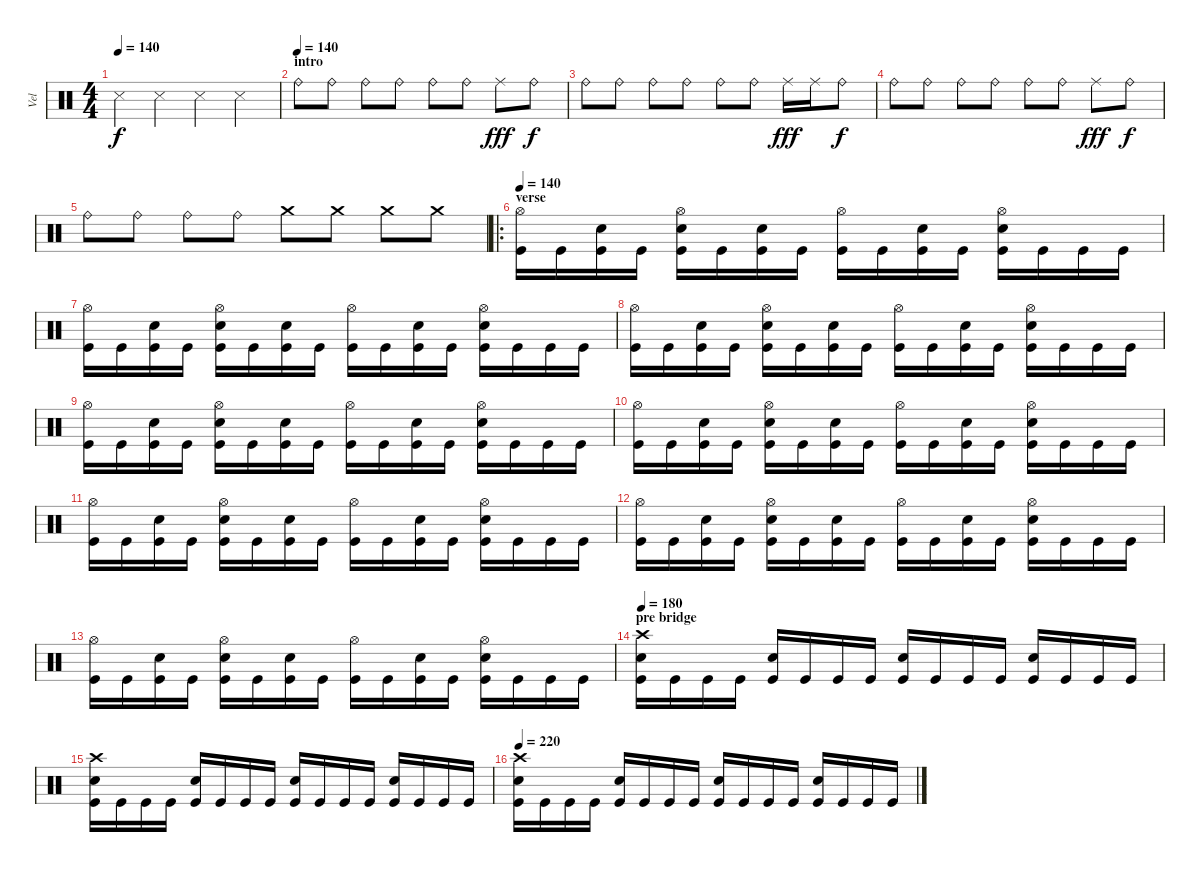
\track ("Vel" "Vel") {instrument percussion}
\staff {score}
\articulation defaults
\ts (4 4)
\tempo 140
\clef neutral
\ks c "Snare (side stick) 3".4{dy f} "Snare (side stick) 3".4 "Snare (side stick) 3".4 "Snare (side stick) 3".4
|
\section ("" "intro")
\tempo (140)
"Ride (bell)".8 "Ride (bell)".8 "Ride (bell)".8 "Ride (bell)".8 "Ride (bell)".8 "Ride (bell)".8 "Ride (middle)".8{dy fff} "Ride (bell)".8{dy f} |
"Ride (bell)".8 "Ride (bell)".8 "Ride (bell)".8 "Ride (bell)".8 "Ride (bell)".8 "Ride (bell)".8 "Ride (middle)".16{dy fff} "Ride (middle)".16 "Ride (bell)".8{dy f} |
"Ride (bell)".8 "Ride (bell)".8 "Ride (bell)".8 "Ride (bell)".8 "Ride (bell)".8 "Ride (bell)".8 "Ride (middle)".8{dy fff} "Ride (bell)".8{dy f} |
"Ride (bell)".8 "Ride (bell)".8 "Ride (bell)".8 "Ride (bell)".8 "Crash medium (hit)".8 "Crash medium (hit)".8 "Crash medium (hit)".8 "Crash medium (hit)".8 |
\ro
\section ("" "verse")
\tempo 140
("Hi-Hat (open)" "Kick (hit)").16 "Kick (hit)".16 ("Electric Snare (hit)" "Kick (hit)").16 "Kick (hit)".16 ("Hi-Hat (open)" "Electric Snare (hit)" "Kick (hit)").16 "Kick (hit)".16 ("Electric Snare (hit)" "Kick (hit)").16 "Kick (hit)".16 ("Hi-Hat (open)" "Kick (hit)").16 "Kick (hit)".16 ("Electric Snare (hit)" "Kick (hit)").16 "Kick (hit)".16 ("Hi-Hat (open)" "Electric Snare (hit)" "Kick (hit)").16 "Kick (hit)".16 "Kick (hit)".16 "Kick (hit)".16 |
("Hi-Hat (open)" "Kick (hit)").16 "Kick (hit)".16 ("Electric Snare (hit)" "Kick (hit)").16 "Kick (hit)".16 ("Hi-Hat (open)" "Electric Snare (hit)" "Kick (hit)").16 "Kick (hit)".16 ("Electric Snare (hit)" "Kick (hit)").16 "Kick (hit)".16 ("Hi-Hat (open)" "Kick (hit)").16 "Kick (hit)".16 ("Electric Snare (hit)" "Kick (hit)").16 "Kick (hit)".16 ("Hi-Hat (open)" "Electric Snare (hit)" "Kick (hit)").16 "Kick (hit)".16 "Kick (hit)".16 "Kick (hit)".16 |
("Hi-Hat (open)" "Kick (hit)").16 "Kick (hit)".16 ("Electric Snare (hit)" "Kick (hit)").16 "Kick (hit)".16 ("Hi-Hat (open)" "Electric Snare (hit)" "Kick (hit)").16 "Kick (hit)".16 ("Electric Snare (hit)" "Kick (hit)").16 "Kick (hit)".16 ("Hi-Hat (open)" "Kick (hit)").16 "Kick (hit)".16 ("Electric Snare (hit)" "Kick (hit)").16 "Kick (hit)".16 ("Hi-Hat (open)" "Electric Snare (hit)" "Kick (hit)").16 "Kick (hit)".16 "Kick (hit)".16 "Kick (hit)".16 |
("Hi-Hat (open)" "Kick (hit)").16 "Kick (hit)".16 ("Electric Snare (hit)" "Kick (hit)").16 "Kick (hit)".16 ("Hi-Hat (open)" "Electric Snare (hit)" "Kick (hit)").16 "Kick (hit)".16 ("Electric Snare (hit)" "Kick (hit)").16 "Kick (hit)".16 ("Hi-Hat (open)" "Kick (hit)").16 "Kick (hit)".16 ("Electric Snare (hit)" "Kick (hit)").16 "Kick (hit)".16 ("Hi-Hat (open)" "Electric Snare (hit)" "Kick (hit)").16 "Kick (hit)".16 "Kick (hit)".16 "Kick (hit)".16 |
("Hi-Hat (open)" "Kick (hit)").16 "Kick (hit)".16 ("Electric Snare (hit)" "Kick (hit)").16 "Kick (hit)".16 ("Hi-Hat (open)" "Electric Snare (hit)" "Kick (hit)").16 "Kick (hit)".16 ("Electric Snare (hit)" "Kick (hit)").16 "Kick (hit)".16 ("Hi-Hat (open)" "Kick (hit)").16 "Kick (hit)".16 ("Electric Snare (hit)" "Kick (hit)").16 "Kick (hit)".16 ("Hi-Hat (open)" "Electric Snare (hit)" "Kick (hit)").16 "Kick (hit)".16 "Kick (hit)".16 "Kick (hit)".16 |
("Hi-Hat (open)" "Kick (hit)").16 "Kick (hit)".16 ("Electric Snare (hit)" "Kick (hit)").16 "Kick (hit)".16 ("Hi-Hat (open)" "Electric Snare (hit)" "Kick (hit)").16 "Kick (hit)".16 ("Electric Snare (hit)" "Kick (hit)").16 "Kick (hit)".16 ("Hi-Hat (open)" "Kick (hit)").16 "Kick (hit)".16 ("Electric Snare (hit)" "Kick (hit)").16 "Kick (hit)".16 ("Hi-Hat (open)" "Electric Snare (hit)" "Kick (hit)").16 "Kick (hit)".16 "Kick (hit)".16 "Kick (hit)".16 |
("Hi-Hat (open)" "Kick (hit)").16 "Kick (hit)".16 ("Electric Snare (hit)" "Kick (hit)").16 "Kick (hit)".16 ("Hi-Hat (open)" "Electric Snare (hit)" "Kick (hit)").16 "Kick (hit)".16 ("Electric Snare (hit)" "Kick (hit)").16 "Kick (hit)".16 ("Hi-Hat (open)" "Kick (hit)").16 "Kick (hit)".16 ("Electric Snare (hit)" "Kick (hit)").16 "Kick (hit)".16 ("Hi-Hat (open)" "Electric Snare (hit)" "Kick (hit)").16 "Kick (hit)".16 "Kick (hit)".16 "Kick (hit)".16 |
("Hi-Hat (open)" "Kick (hit)").16 "Kick (hit)".16 ("Electric Snare (hit)" "Kick (hit)").16 "Kick (hit)".16 ("Hi-Hat (open)" "Electric Snare (hit)" "Kick (hit)").16 "Kick (hit)".16 ("Electric Snare (hit)" "Kick (hit)").16 "Kick (hit)".16 ("Hi-Hat (open)" "Kick (hit)").16 "Kick (hit)".16 ("Electric Snare (hit)" "Kick (hit)").16 "Kick (hit)".16 ("Hi-Hat (open)" "Electric Snare (hit)" "Kick (hit)").16 "Kick (hit)".16 "Kick (hit)".16 "Kick (hit)".16 |
\section ("" "pre bridge")
\tempo 180
("Crash high (hit)" "Electric Snare (hit)" "Kick (hit)").16 "Kick (hit)".16 "Kick (hit)".16 "Kick (hit)".16 ("Electric Snare (hit)" "Kick (hit)").16 "Kick (hit)".16 "Kick (hit)".16 "Kick (hit)".16 ("Electric Snare (hit)" "Kick (hit)").16 "Kick (hit)".16 "Kick (hit)".16 "Kick (hit)".16 ("Electric Snare (hit)" "Kick (hit)").16 "Kick (hit)".16 "Kick (hit)".16 "Kick (hit)".16 |
("Crash high (hit)" "Electric Snare (hit)" "Kick (hit)").16 "Kick (hit)".16 "Kick (hit)".16 "Kick (hit)".16 ("Electric Snare (hit)" "Kick (hit)").16 "Kick (hit)".16 "Kick (hit)".16 "Kick (hit)".16 ("Electric Snare (hit)" "Kick (hit)").16 "Kick (hit)".16 "Kick (hit)".16 "Kick (hit)".16 ("Electric Snare (hit)" "Kick (hit)").16 "Kick (hit)".16 "Kick (hit)".16 "Kick (hit)".16 |
\tempo 220
("Crash high (hit)" "Electric Snare (hit)" "Kick (hit)").16 "Kick (hit)".16 "Kick (hit)".16 "Kick (hit)".16 ("Electric Snare (hit)" "Kick (hit)").16 "Kick (hit)".16 "Kick (hit)".16 "Kick (hit)".16 ("Electric Snare (hit)" "Kick (hit)").16 "Kick (hit)".16 "Kick (hit)".16 "Kick (hit)".16 ("Electric Snare (hit)" "Kick (hit)").16 "Kick (hit)".16 "Kick (hit)".16 "Kick (hit)".16
